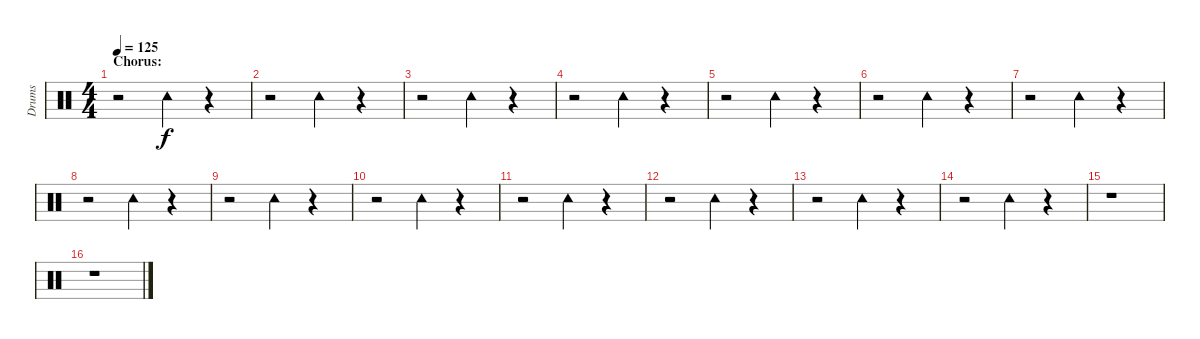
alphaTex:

\track ("Drums" "Drums") {instrument percussion}
\staff {score}
\articulation defaults
\ts (4 4)
\section ("" "Chorus:")
\tempo 125
\clef neutral
\ks c
r.2{dy f} "Tambourine (hit)".4 r.4 |
r.2 "Tambourine (hit)".4 r.4 |
r.2 "Tambourine (hit)".4 r.4 |
r.2 "Tambourine (hit)".4 r.4 |
r.2 "Tambourine (hit)".4 r.4 |
r.2 "Tambourine (hit)".4 r.4 |
r.2 "Tambourine (hit)".4 r.4 |
r.2 "Tambourine (hit)".4 r.4 |
r.2 "Tambourine (hit)".4 r.4 |
r.2 "Tambourine (hit)".4 r.4 |
r.2 "Tambourine (hit)".4 r.4 |
r.2 "Tambourine (hit)".4 r.4 |
r.2 "Tambourine (hit)".4 r.4 |
r.2 "Tambourine (hit)".4 r.4 |
r.1 |
r.1
